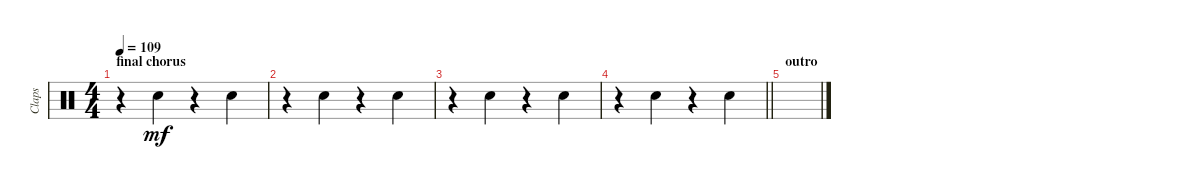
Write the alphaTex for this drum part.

\track ("Claps" "Claps") {instrument percussion}
\staff {score}
\articulation defaults
\ts (4 4)
\section ("" "final chorus")
\tempo 109
\clef neutral
\ks c
r.4{dy mf} "Hand Clap (hit)".4 r.4 "Hand Clap (hit)".4 |
r.4 "Hand Clap (hit)".4 r.4 "Hand Clap (hit)".4 |
r.4 "Hand Clap (hit)".4 r.4 "Hand Clap (hit)".4 |
\barLineRight lightlight
r.4 "Hand Clap (hit)".4 r.4 "Hand Clap (hit)".4 |
\section ("" "outro")
